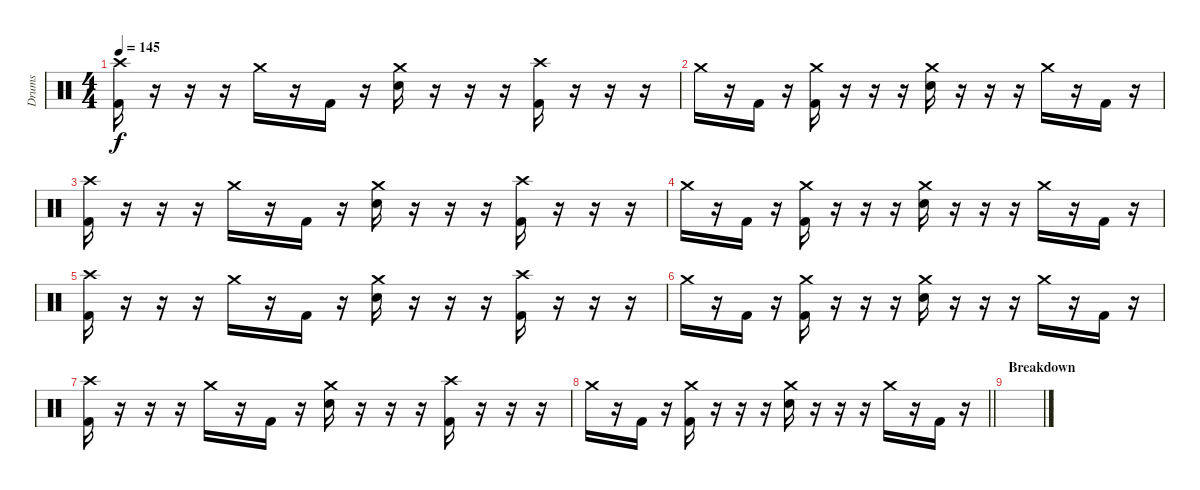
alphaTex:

\track ("Drums" "Drums") {instrument percussion}
\staff {score}
\articulation defaults
\ts (4 4)
\tempo 145
\clef neutral
\ks c
("Crash high (hit)" "Kick (hit) 2").16{dy f} r.16 r.16 r.16 "Crash medium (hit)".16 r.16 "Kick (hit) 2".16 r.16 ("Crash medium (hit)" "Electric Snare (hit)").16 r.16 r.16 r.16 ("Crash high (hit)" "Kick (hit) 2").16 r.16 r.16 r.16 |
"Crash medium (hit)".16 r.16 "Kick (hit) 2".16 r.16 ("Crash medium (hit)" "Kick (hit) 2").16 r.16 r.16 r.16 ("Crash medium (hit)" "Electric Snare (hit)").16 r.16 r.16 r.16 "Crash medium (hit)".16 r.16 "Kick (hit) 2".16 r.16 |
("Crash high (hit)" "Kick (hit) 2").16 r.16 r.16 r.16 "Crash medium (hit)".16 r.16 "Kick (hit) 2".16 r.16 ("Crash medium (hit)" "Electric Snare (hit)").16 r.16 r.16 r.16 ("Crash high (hit)" "Kick (hit) 2").16 r.16 r.16 r.16 |
"Crash medium (hit)".16 r.16 "Kick (hit) 2".16 r.16 ("Crash medium (hit)" "Kick (hit) 2").16 r.16 r.16 r.16 ("Crash medium (hit)" "Electric Snare (hit)").16 r.16 r.16 r.16 "Crash medium (hit)".16 r.16 "Kick (hit) 2".16 r.16 |
("Crash high (hit)" "Kick (hit) 2").16 r.16 r.16 r.16 "Crash medium (hit)".16 r.16 "Kick (hit) 2".16 r.16 ("Crash medium (hit)" "Electric Snare (hit)").16 r.16 r.16 r.16 ("Crash high (hit)" "Kick (hit) 2").16 r.16 r.16 r.16 |
"Crash medium (hit)".16 r.16 "Kick (hit) 2".16 r.16 ("Crash medium (hit)" "Kick (hit) 2").16 r.16 r.16 r.16 ("Crash medium (hit)" "Electric Snare (hit)").16 r.16 r.16 r.16 "Crash medium (hit)".16 r.16 "Kick (hit) 2".16 r.16 |
("Crash high (hit)" "Kick (hit) 2").16 r.16 r.16 r.16 "Crash medium (hit)".16 r.16 "Kick (hit) 2".16 r.16 ("Crash medium (hit)" "Electric Snare (hit)").16 r.16 r.16 r.16 ("Crash high (hit)" "Kick (hit) 2").16 r.16 r.16 r.16 |
\barLineRight lightlight "Crash medium (hit)".16
r.16 "Kick (hit) 2".16 r.16 ("Crash medium (hit)" "Kick (hit) 2").16 r.16 r.16 r.16 ("Crash medium (hit)" "Electric Snare (hit)").16 r.16 r.16 r.16 "Crash medium (hit)".16 r.16 "Kick (hit) 2".16 r.16 |
\section ("" "Breakdown")
